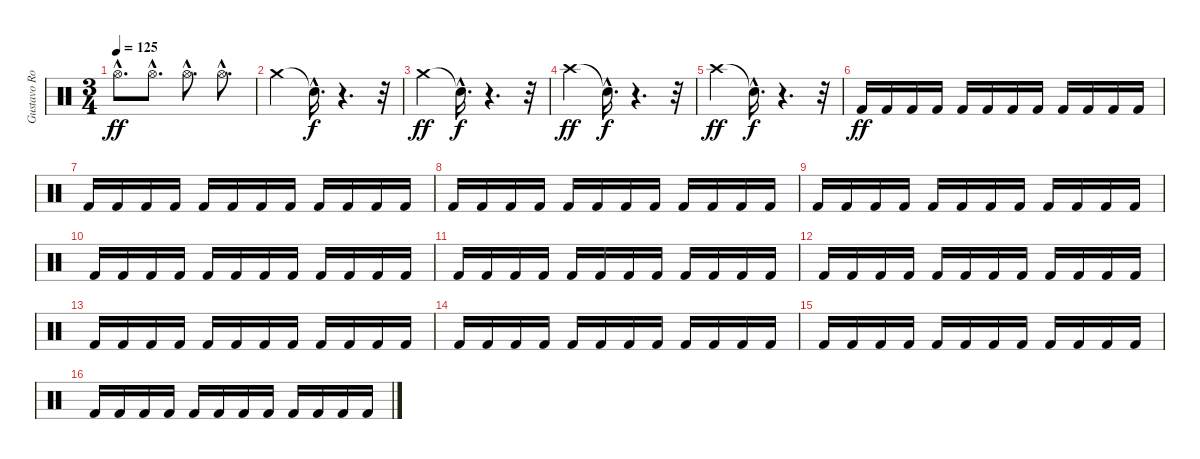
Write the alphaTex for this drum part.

\track ("Gustavo Rowek 1" "Gustavo Ro") {instrument percussion}
\staff {score}
\articulation defaults
\ts (3 4)
\tempo 125
\clef neutral
\ks c "Hi-Hat (open)"{hac}.8{d dy ff} "Hi-Hat (open)"{hac}.8{d} "Hi-Hat (open)"{hac}.8{d} "Hi-Hat (open)"{hac}.8{d}
|
"Crash medium (hit)".4 "Snare (hit)"{hac t}.16{d dy f} r.4{d} r.32 |
"Crash medium (hit)".4{dy ff} "Snare (hit)"{hac t}.16{d dy f} r.4{d} r.32 |
"Crash high (hit)".4{dy ff} "Snare (hit)"{hac t}.16{d dy f} r.4{d} r.32 |
"Crash high (hit)".4{dy ff} "Snare (hit)"{hac t}.16{d dy f} r.4{d} r.32 |
"Kick (hit) 2".16{dy ff} "Kick (hit) 2".16 "Kick (hit) 2".16 "Kick (hit) 2".16 "Kick (hit) 2".16 "Kick (hit) 2".16 "Kick (hit) 2".16 "Kick (hit) 2".16 "Kick (hit) 2".16 "Kick (hit) 2".16 "Kick (hit) 2".16 "Kick (hit) 2".16 |
"Kick (hit) 2".16 "Kick (hit) 2".16 "Kick (hit) 2".16 "Kick (hit) 2".16 "Kick (hit) 2".16 "Kick (hit) 2".16 "Kick (hit) 2".16 "Kick (hit) 2".16 "Kick (hit) 2".16 "Kick (hit) 2".16 "Kick (hit) 2".16 "Kick (hit) 2".16 |
"Kick (hit) 2".16 "Kick (hit) 2".16 "Kick (hit) 2".16 "Kick (hit) 2".16 "Kick (hit) 2".16 "Kick (hit) 2".16 "Kick (hit) 2".16 "Kick (hit) 2".16 "Kick (hit) 2".16 "Kick (hit) 2".16 "Kick (hit) 2".16 "Kick (hit) 2".16 |
"Kick (hit) 2".16 "Kick (hit) 2".16 "Kick (hit) 2".16 "Kick (hit) 2".16 "Kick (hit) 2".16 "Kick (hit) 2".16 "Kick (hit) 2".16 "Kick (hit) 2".16 "Kick (hit) 2".16 "Kick (hit) 2".16 "Kick (hit) 2".16 "Kick (hit) 2".16 |
"Kick (hit) 2".16 "Kick (hit) 2".16 "Kick (hit) 2".16 "Kick (hit) 2".16 "Kick (hit) 2".16 "Kick (hit) 2".16 "Kick (hit) 2".16 "Kick (hit) 2".16 "Kick (hit) 2".16 "Kick (hit) 2".16 "Kick (hit) 2".16 "Kick (hit) 2".16 |
"Kick (hit) 2".16 "Kick (hit) 2".16 "Kick (hit) 2".16 "Kick (hit) 2".16 "Kick (hit) 2".16 "Kick (hit) 2".16 "Kick (hit) 2".16 "Kick (hit) 2".16 "Kick (hit) 2".16 "Kick (hit) 2".16 "Kick (hit) 2".16 "Kick (hit) 2".16 |
"Kick (hit) 2".16 "Kick (hit) 2".16 "Kick (hit) 2".16 "Kick (hit) 2".16 "Kick (hit) 2".16 "Kick (hit) 2".16 "Kick (hit) 2".16 "Kick (hit) 2".16 "Kick (hit) 2".16 "Kick (hit) 2".16 "Kick (hit) 2".16 "Kick (hit) 2".16 |
"Kick (hit) 2".16 "Kick (hit) 2".16 "Kick (hit) 2".16 "Kick (hit) 2".16 "Kick (hit) 2".16 "Kick (hit) 2".16 "Kick (hit) 2".16 "Kick (hit) 2".16 "Kick (hit) 2".16 "Kick (hit) 2".16 "Kick (hit) 2".16 "Kick (hit) 2".16 |
"Kick (hit) 2".16 "Kick (hit) 2".16 "Kick (hit) 2".16 "Kick (hit) 2".16 "Kick (hit) 2".16 "Kick (hit) 2".16 "Kick (hit) 2".16 "Kick (hit) 2".16 "Kick (hit) 2".16 "Kick (hit) 2".16 "Kick (hit) 2".16 "Kick (hit) 2".16 |
"Kick (hit) 2".16 "Kick (hit) 2".16 "Kick (hit) 2".16 "Kick (hit) 2".16 "Kick (hit) 2".16 "Kick (hit) 2".16 "Kick (hit) 2".16 "Kick (hit) 2".16 "Kick (hit) 2".16 "Kick (hit) 2".16 "Kick (hit) 2".16 "Kick (hit) 2".16 |
"Kick (hit) 2".16 "Kick (hit) 2".16 "Kick (hit) 2".16 "Kick (hit) 2".16 "Kick (hit) 2".16 "Kick (hit) 2".16 "Kick (hit) 2".16 "Kick (hit) 2".16 "Kick (hit) 2".16 "Kick (hit) 2".16 "Kick (hit) 2".16 "Kick (hit) 2".16
